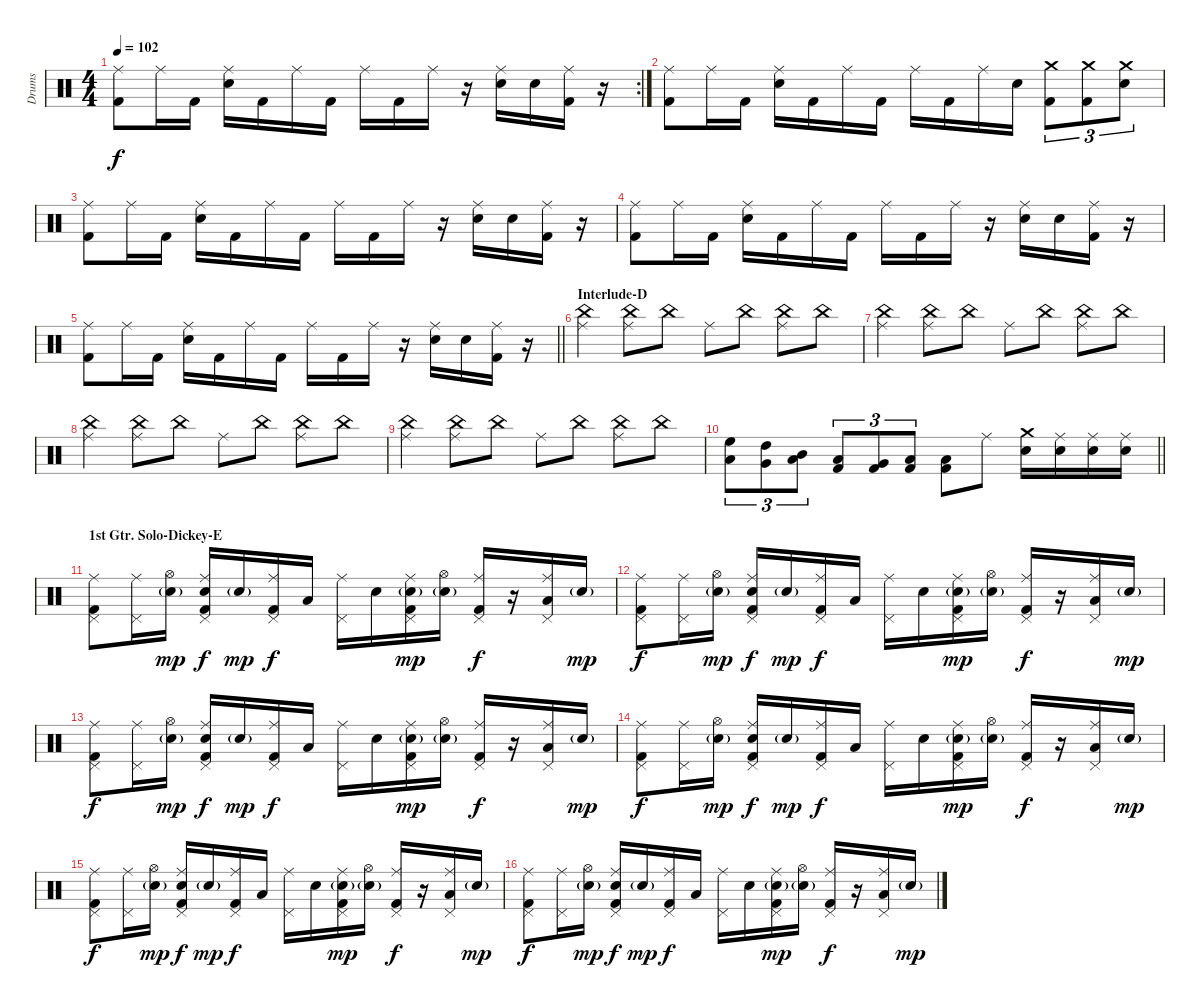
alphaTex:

\track ("Drums" "Drums") {instrument percussion}
\staff {score}
\articulation defaults
\rc 2
\ts (4 4)
\tempo 102
\clef neutral
\ks c
("Ride (middle)" "Kick (hit) 2").8{dy f} "Ride (middle)".16 "Kick (hit) 2".16 ("Ride (middle)" "Electric Snare (hit)").16 "Kick (hit) 2".16 "Ride (middle)".16 "Kick (hit) 2".16 "Ride (middle)".16 "Kick (hit) 2".16 "Ride (middle)".16 r.16 ("Ride (middle)" "Electric Snare (hit)").16 "Electric Snare (hit)".16 ("Ride (middle)" "Kick (hit) 2").16 r.16 |
("Ride (middle)" "Kick (hit) 2").8 "Ride (middle)".16 "Kick (hit) 2".16 ("Ride (middle)" "Electric Snare (hit)").16 "Kick (hit) 2".16 "Ride (middle)".16 "Kick (hit) 2".16 "Ride (middle)".16 "Kick (hit) 2".16 "Ride (middle)".16 "Electric Snare (hit)".16 ("Crash medium (hit)" "Kick (hit) 2").8{tu (3 2)} ("Crash medium (hit)" "Kick (hit) 2").8{tu (3 2)} ("Crash medium (hit)" "Electric Snare (hit)").8{tu (3 2)} |
("Ride (middle)" "Kick (hit) 2").8 "Ride (middle)".16 "Kick (hit) 2".16 ("Ride (middle)" "Electric Snare (hit)").16 "Kick (hit) 2".16 "Ride (middle)".16 "Kick (hit) 2".16 "Ride (middle)".16 "Kick (hit) 2".16 "Ride (middle)".16 r.16 ("Ride (middle)" "Electric Snare (hit)").16 "Electric Snare (hit)".16 ("Ride (middle)" "Kick (hit) 2").16 r.16 |
("Ride (middle)" "Kick (hit) 2").8 "Ride (middle)".16 "Kick (hit) 2".16 ("Ride (middle)" "Electric Snare (hit)").16 "Kick (hit) 2".16 "Ride (middle)".16 "Kick (hit) 2".16 "Ride (middle)".16 "Kick (hit) 2".16 "Ride (middle)".16 r.16 ("Ride (middle)" "Electric Snare (hit)").16 "Electric Snare (hit)".16 ("Ride (middle)" "Kick (hit) 2").16 r.16 |
\barLineRight lightlight
("Ride (middle)" "Kick (hit) 2").8 "Ride (middle)".16 "Kick (hit) 2".16 ("Ride (middle)" "Electric Snare (hit)").16 "Kick (hit) 2".16 "Ride (middle)".16 "Kick (hit) 2".16 "Ride (middle)".16 "Kick (hit) 2".16 "Ride (middle)".16 r.16 ("Ride (middle)" "Electric Snare (hit)").16 "Electric Snare (hit)".16 ("Ride (middle)" "Kick (hit) 2").16 r.16 |
\section ("" "Interlude-D")
("Ride (middle)" "China (hit)").4 ("Ride (middle)" "China (hit)").8 "China (hit)".8 "Ride (middle)".8 "China (hit)".8 ("Ride (middle)" "China (hit)").8 "China (hit)".8 |
("Ride (middle)" "China (hit)").4 ("Ride (middle)" "China (hit)").8 "China (hit)".8 "Ride (middle)".8 "China (hit)".8 ("Ride (middle)" "China (hit)").8 "China (hit)".8 |
("Ride (middle)" "China (hit)").4 ("Ride (middle)" "China (hit)").8 "China (hit)".8 "Ride (middle)".8 "China (hit)".8 ("Ride (middle)" "China (hit)").8 "China (hit)".8 |
("Ride (middle)" "China (hit)").4 ("Ride (middle)" "China (hit)").8 "China (hit)".8 "Ride (middle)".8 "China (hit)".8 ("Ride (middle)" "China (hit)").8 "China (hit)".8 |
\barLineRight lightlight
("High Floor Tom (hit)" "Low Tom (hit)").8{tu (3 2)} ("High Tom (hit)" "Very Low Tom (hit)").8{tu (3 2)} ("Mid Tom (hit)" "Low Floor Tom (hit)").8{tu (3 2)} ("Low Tom (hit)" "Kick (hit) 2").8{tu (3 2)} ("Very Low Tom (hit)" "Kick (hit) 2").8{tu (3 2)} ("Low Floor Tom (hit)" "Kick (hit) 2").8{tu (3 2)} ("Low Floor Tom (hit)" "Kick (hit) 2").8 "Ride (middle)".8 ("Crash medium (hit)" "Electric Snare (hit)").16 ("Ride (middle)" "Electric Snare (hit)").16 ("Ride (middle)" "Electric Snare (hit)").16 ("Ride (middle)" "Electric Snare (hit)").16 |
\section ("" "1st Gtr. Solo-Dickey-E")
("Ride (middle)" "Pedal Hi-Hat (hit)" "Kick (hit) 2").8 ("Ride (middle)" "Pedal Hi-Hat (hit)").16 ("Hi-Hat (open)" "Electric Snare (hit)"{g}).16{dy mp} ("Ride (middle)" "Pedal Hi-Hat (hit)" "Electric Snare (hit)" "Kick (hit) 2").16{dy f} "Electric Snare (hit)"{g}.16{dy mp} ("Ride (middle)" "Pedal Hi-Hat (hit)" "Kick (hit) 2").16{dy f} "Low Floor Tom (hit)".16 ("Ride (middle)" "Pedal Hi-Hat (hit)").16 "Electric Snare (hit)".16 ("Ride (middle)" "Pedal Hi-Hat (hit)" "Electric Snare (hit)"{g} "Kick (hit) 2").16{dy mp} ("Hi-Hat (open)" "Electric Snare (hit)"{g}).16 ("Ride (middle)" "Pedal Hi-Hat (hit)" "Kick (hit) 2").16{dy f} r.16 ("Ride (middle)" "Pedal Hi-Hat (hit)" "Low Floor Tom (hit)").16 "Electric Snare (hit)"{g}.16{dy mp} |
("Ride (middle)" "Pedal Hi-Hat (hit)" "Kick (hit) 2").8{dy f} ("Ride (middle)" "Pedal Hi-Hat (hit)").16 ("Hi-Hat (open)" "Electric Snare (hit)"{g}).16{dy mp} ("Ride (middle)" "Pedal Hi-Hat (hit)" "Electric Snare (hit)" "Kick (hit) 2").16{dy f} "Electric Snare (hit)"{g}.16{dy mp} ("Ride (middle)" "Pedal Hi-Hat (hit)" "Kick (hit) 2").16{dy f} "Low Floor Tom (hit)".16 ("Ride (middle)" "Pedal Hi-Hat (hit)").16 "Electric Snare (hit)".16 ("Ride (middle)" "Pedal Hi-Hat (hit)" "Electric Snare (hit)"{g} "Kick (hit) 2").16{dy mp} ("Hi-Hat (open)" "Electric Snare (hit)"{g}).16 ("Ride (middle)" "Pedal Hi-Hat (hit)" "Kick (hit) 2").16{dy f} r.16 ("Ride (middle)" "Pedal Hi-Hat (hit)" "Low Floor Tom (hit)").16 "Electric Snare (hit)"{g}.16{dy mp} |
("Ride (middle)" "Pedal Hi-Hat (hit)" "Kick (hit) 2").8{dy f} ("Ride (middle)" "Pedal Hi-Hat (hit)").16 ("Hi-Hat (open)" "Electric Snare (hit)"{g}).16{dy mp} ("Ride (middle)" "Pedal Hi-Hat (hit)" "Electric Snare (hit)" "Kick (hit) 2").16{dy f} "Electric Snare (hit)"{g}.16{dy mp} ("Ride (middle)" "Pedal Hi-Hat (hit)" "Kick (hit) 2").16{dy f} "Low Floor Tom (hit)".16 ("Ride (middle)" "Pedal Hi-Hat (hit)").16 "Electric Snare (hit)".16 ("Ride (middle)" "Pedal Hi-Hat (hit)" "Electric Snare (hit)"{g} "Kick (hit) 2").16{dy mp} ("Hi-Hat (open)" "Electric Snare (hit)"{g}).16 ("Ride (middle)" "Pedal Hi-Hat (hit)" "Kick (hit) 2").16{dy f} r.16 ("Ride (middle)" "Pedal Hi-Hat (hit)" "Low Floor Tom (hit)").16 "Electric Snare (hit)"{g}.16{dy mp} |
("Ride (middle)" "Pedal Hi-Hat (hit)" "Kick (hit) 2").8{dy f} ("Ride (middle)" "Pedal Hi-Hat (hit)").16 ("Hi-Hat (open)" "Electric Snare (hit)"{g}).16{dy mp} ("Ride (middle)" "Pedal Hi-Hat (hit)" "Electric Snare (hit)" "Kick (hit) 2").16{dy f} "Electric Snare (hit)"{g}.16{dy mp} ("Ride (middle)" "Pedal Hi-Hat (hit)" "Kick (hit) 2").16{dy f} "Low Floor Tom (hit)".16 ("Ride (middle)" "Pedal Hi-Hat (hit)").16 "Electric Snare (hit)".16 ("Ride (middle)" "Pedal Hi-Hat (hit)" "Electric Snare (hit)"{g} "Kick (hit) 2").16{dy mp} ("Hi-Hat (open)" "Electric Snare (hit)"{g}).16 ("Ride (middle)" "Pedal Hi-Hat (hit)" "Kick (hit) 2").16{dy f} r.16 ("Ride (middle)" "Pedal Hi-Hat (hit)" "Low Floor Tom (hit)").16 "Electric Snare (hit)"{g}.16{dy mp} |
("Ride (middle)" "Pedal Hi-Hat (hit)" "Kick (hit) 2").8{dy f} ("Ride (middle)" "Pedal Hi-Hat (hit)").16 ("Hi-Hat (open)" "Electric Snare (hit)"{g}).16{dy mp} ("Ride (middle)" "Pedal Hi-Hat (hit)" "Electric Snare (hit)" "Kick (hit) 2").16{dy f} "Electric Snare (hit)"{g}.16{dy mp} ("Ride (middle)" "Pedal Hi-Hat (hit)" "Kick (hit) 2").16{dy f} "Low Floor Tom (hit)".16 ("Ride (middle)" "Pedal Hi-Hat (hit)").16 "Electric Snare (hit)".16 ("Ride (middle)" "Pedal Hi-Hat (hit)" "Electric Snare (hit)"{g} "Kick (hit) 2").16{dy mp} ("Hi-Hat (open)" "Electric Snare (hit)"{g}).16 ("Ride (middle)" "Pedal Hi-Hat (hit)" "Kick (hit) 2").16{dy f} r.16 ("Ride (middle)" "Pedal Hi-Hat (hit)" "Low Floor Tom (hit)").16 "Electric Snare (hit)"{g}.16{dy mp} |
("Ride (middle)" "Pedal Hi-Hat (hit)" "Kick (hit) 2").8{dy f} ("Ride (middle)" "Pedal Hi-Hat (hit)").16 ("Hi-Hat (open)" "Electric Snare (hit)"{g}).16{dy mp} ("Ride (middle)" "Pedal Hi-Hat (hit)" "Electric Snare (hit)" "Kick (hit) 2").16{dy f} "Electric Snare (hit)"{g}.16{dy mp} ("Ride (middle)" "Pedal Hi-Hat (hit)" "Kick (hit) 2").16{dy f} "Low Floor Tom (hit)".16 ("Ride (middle)" "Pedal Hi-Hat (hit)").16 "Electric Snare (hit)".16 ("Ride (middle)" "Pedal Hi-Hat (hit)" "Electric Snare (hit)"{g} "Kick (hit) 2").16{dy mp} ("Hi-Hat (open)" "Electric Snare (hit)"{g}).16 ("Ride (middle)" "Pedal Hi-Hat (hit)" "Kick (hit) 2").16{dy f} r.16 ("Ride (middle)" "Pedal Hi-Hat (hit)" "Low Floor Tom (hit)").16 "Electric Snare (hit)"{g}.16{dy mp}
